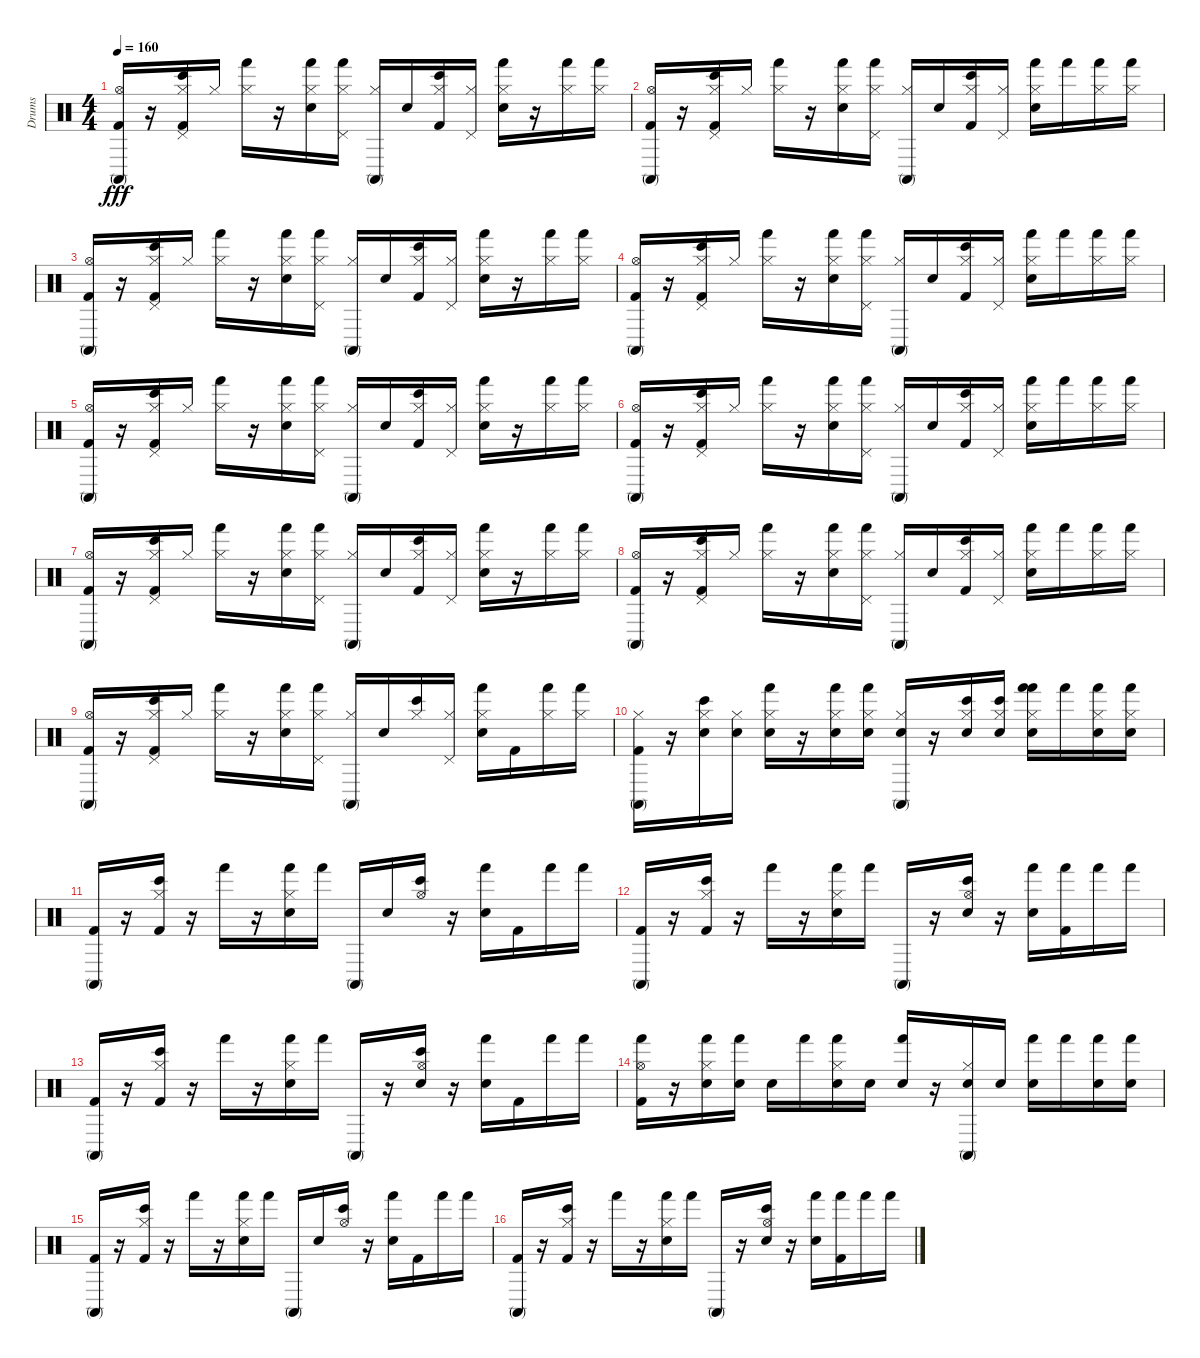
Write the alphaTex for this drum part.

\track ("Drums" "Drums") {instrument percussion}
\staff {score}
\articulation defaults
\ts (4 4)
\tempo 160
\clef neutral
\ks c
("Hi-Hat (open)" "Kick (hit) 2" "Conga high (mute)").16{dy fff} r.16 ("Bongo High (hit)" "Pedal Hi-Hat (hit)" "Kick (hit) 2" "Hi-Hat (closed)").16 "Hi-Hat (closed)".16 ("Hi-Hat (closed)" "Hand (hit)").16 r.16 ("Electric Snare (hit)" "Hi-Hat (closed)" "Hand (hit)").16 ("Pedal Hi-Hat (hit)" "Hi-Hat (closed)" "Hand (hit)").16 ("Conga high (mute)" "Hi-Hat (closed)").16 "Electric Snare (hit)".16 ("Bongo High (hit)" "Kick (hit) 2" "Hi-Hat (closed)").16 ("Hi-Hat (closed)" "Pedal Hi-Hat (hit)").16 ("Hi-Hat (closed)" "Hand (hit)" "Electric Snare (hit)").16 r.16 ("Hi-Hat (closed)" "Hand (hit)").16 ("Hi-Hat (closed)" "Hand (hit)").16 |
("Conga high (mute)" "Hi-Hat (open)" "Kick (hit) 2").16 r.16 ("Kick (hit) 2" "Bongo High (hit)" "Pedal Hi-Hat (hit)" "Hi-Hat (closed)").16 "Hi-Hat (closed)".16 ("Hi-Hat (closed)" "Hand (hit)").16 r.16 ("Electric Snare (hit)" "Hand (hit)" "Hi-Hat (closed)").16 ("Hand (hit)" "Pedal Hi-Hat (hit)" "Hi-Hat (closed)").16 ("Conga high (mute)" "Hi-Hat (closed)").16 "Electric Snare (hit)".16 ("Kick (hit) 2" "Hi-Hat (closed)" "Bongo High (hit)").16 ("Pedal Hi-Hat (hit)" "Hi-Hat (closed)").16 ("Hand (hit)" "Hi-Hat (closed)" "Electric Snare (hit)").16 "Hand (hit)".16 ("Hand (hit)" "Hi-Hat (closed)").16 ("Hand (hit)" "Hi-Hat (closed)").16 |
("Hi-Hat (open)" "Kick (hit) 2" "Conga high (mute)").16 r.16 ("Hi-Hat (closed)" "Pedal Hi-Hat (hit)" "Kick (hit) 2" "Bongo High (hit)").16 "Hi-Hat (closed)".16 ("Hand (hit)" "Hi-Hat (closed)").16 r.16 ("Hand (hit)" "Electric Snare (hit)" "Hi-Hat (closed)").16 ("Hand (hit)" "Pedal Hi-Hat (hit)" "Hi-Hat (closed)").16 ("Hi-Hat (closed)" "Conga high (mute)").16 "Electric Snare (hit)".16 ("Hi-Hat (closed)" "Kick (hit) 2" "Bongo High (hit)").16 ("Pedal Hi-Hat (hit)" "Hi-Hat (closed)").16 ("Electric Snare (hit)" "Hi-Hat (closed)" "Hand (hit)").16 r.16 ("Hand (hit)" "Hi-Hat (closed)").16 ("Hi-Hat (closed)" "Hand (hit)").16 |
("Kick (hit) 2" "Conga high (mute)" "Hi-Hat (open)").16 r.16 ("Kick (hit) 2" "Bongo High (hit)" "Pedal Hi-Hat (hit)" "Hi-Hat (closed)").16 "Hi-Hat (closed)".16 ("Hi-Hat (closed)" "Hand (hit)").16 r.16 ("Hi-Hat (closed)" "Electric Snare (hit)" "Hand (hit)").16 ("Pedal Hi-Hat (hit)" "Hi-Hat (closed)" "Hand (hit)").16 ("Conga high (mute)" "Hi-Hat (closed)").16 "Electric Snare (hit)".16 ("Bongo High (hit)" "Hi-Hat (closed)" "Kick (hit) 2").16 ("Pedal Hi-Hat (hit)" "Hi-Hat (closed)").16 ("Hand (hit)" "Hi-Hat (closed)" "Electric Snare (hit)").16 "Hand (hit)".16 ("Hi-Hat (closed)" "Hand (hit)").16 ("Hi-Hat (closed)" "Hand (hit)").16 |
("Conga high (mute)" "Hi-Hat (open)" "Kick (hit) 2").16 r.16 ("Bongo High (hit)" "Hi-Hat (closed)" "Kick (hit) 2" "Pedal Hi-Hat (hit)").16 "Hi-Hat (closed)".16 ("Hi-Hat (closed)" "Hand (hit)").16 r.16 ("Hand (hit)" "Electric Snare (hit)" "Hi-Hat (closed)").16 ("Hi-Hat (closed)" "Hand (hit)" "Pedal Hi-Hat (hit)").16 ("Hi-Hat (closed)" "Conga high (mute)").16 "Electric Snare (hit)".16 ("Kick (hit) 2" "Hi-Hat (closed)" "Bongo High (hit)").16 ("Hi-Hat (closed)" "Pedal Hi-Hat (hit)").16 ("Electric Snare (hit)" "Hi-Hat (closed)" "Hand (hit)").16 r.16 ("Hand (hit)" "Hi-Hat (closed)").16 ("Hand (hit)" "Hi-Hat (closed)").16 |
("Conga high (mute)" "Hi-Hat (open)" "Kick (hit) 2").16 r.16 ("Pedal Hi-Hat (hit)" "Bongo High (hit)" "Kick (hit) 2" "Hi-Hat (closed)").16 "Hi-Hat (closed)".16 ("Hi-Hat (closed)" "Hand (hit)").16 r.16 ("Hand (hit)" "Hi-Hat (closed)" "Electric Snare (hit)").16 ("Hi-Hat (closed)" "Hand (hit)" "Pedal Hi-Hat (hit)").16 ("Hi-Hat (closed)" "Conga high (mute)").16 "Electric Snare (hit)".16 ("Kick (hit) 2" "Hi-Hat (closed)" "Bongo High (hit)").16 ("Pedal Hi-Hat (hit)" "Hi-Hat (closed)").16 ("Hand (hit)" "Electric Snare (hit)" "Hi-Hat (closed)").16 "Hand (hit)".16 ("Hand (hit)" "Hi-Hat (closed)").16 ("Hand (hit)" "Hi-Hat (closed)").16 |
("Conga high (mute)" "Kick (hit) 2" "Hi-Hat (open)").16 r.16 ("Kick (hit) 2" "Bongo High (hit)" "Hi-Hat (closed)" "Pedal Hi-Hat (hit)").16 "Hi-Hat (closed)".16 ("Hi-Hat (closed)" "Hand (hit)").16 r.16 ("Hi-Hat (closed)" "Hand (hit)" "Electric Snare (hit)").16 ("Hand (hit)" "Hi-Hat (closed)" "Pedal Hi-Hat (hit)").16 ("Conga high (mute)" "Hi-Hat (closed)").16 "Electric Snare (hit)".16 ("Kick (hit) 2" "Bongo High (hit)" "Hi-Hat (closed)").16 ("Pedal Hi-Hat (hit)" "Hi-Hat (closed)").16 ("Hand (hit)" "Electric Snare (hit)" "Hi-Hat (closed)").16 r.16 ("Hand (hit)" "Hi-Hat (closed)").16 ("Hand (hit)" "Hi-Hat (closed)").16 |
("Hi-Hat (open)" "Kick (hit) 2" "Conga high (mute)").16 r.16 ("Hi-Hat (closed)" "Pedal Hi-Hat (hit)" "Kick (hit) 2" "Bongo High (hit)").16 "Hi-Hat (closed)".16 ("Hand (hit)" "Hi-Hat (closed)").16 r.16 ("Hi-Hat (closed)" "Hand (hit)" "Electric Snare (hit)").16 ("Pedal Hi-Hat (hit)" "Hand (hit)" "Hi-Hat (closed)").16 ("Hi-Hat (closed)" "Conga high (mute)").16 "Electric Snare (hit)".16 ("Kick (hit) 2" "Bongo High (hit)" "Hi-Hat (closed)").16 ("Pedal Hi-Hat (hit)" "Hi-Hat (closed)").16 ("Electric Snare (hit)" "Hand (hit)" "Hi-Hat (closed)").16 "Hand (hit)".16 ("Hi-Hat (closed)" "Hand (hit)").16 ("Hi-Hat (closed)" "Hand (hit)").16 |
("Hi-Hat (open)" "Kick (hit) 2" "Conga high (mute)").16 r.16 ("Kick (hit) 2" "Pedal Hi-Hat (hit)" "Hi-Hat (closed)" "Bongo High (hit)").16 "Hi-Hat (closed)".16 ("Hi-Hat (closed)" "Hand (hit)").16 r.16 ("Hand (hit)" "Hi-Hat (closed)" "Electric Snare (hit)").16 ("Hand (hit)" "Hi-Hat (closed)" "Pedal Hi-Hat (hit)").16 ("Hi-Hat (closed)" "Conga high (mute)").16 "Electric Snare (hit)".16 ("Hi-Hat (closed)" "Bongo High (hit)").16 ("Hi-Hat (closed)" "Pedal Hi-Hat (hit)").16 ("Hand (hit)" "Electric Snare (hit)" "Hi-Hat (closed)").16 "Kick (hit) 2".16 ("Hand (hit)" "Hi-Hat (closed)").16 ("Hi-Hat (closed)" "Hand (hit)").16 |
("Hi-Hat (closed)" "Kick (hit) 2" "Conga high (mute)").16 r.16 ("Hi-Hat (closed)" "Electric Snare (hit)" "Bongo High (hit)").16 ("Electric Snare (hit)" "Hi-Hat (closed)").16 ("Electric Snare (hit)" "Hi-Hat (closed)" "Hand (hit)").16 r.16 ("Electric Snare (hit)" "Hand (hit)" "Hi-Hat (closed)").16 ("Hand (hit)" "Hi-Hat (closed)" "Electric Snare (hit)").16 ("Hi-Hat (closed)" "Conga high (mute)" "Electric Snare (hit)").16 r.16 ("Bongo High (hit)" "Electric Snare (hit)" "Hi-Hat (closed)").16 ("Bongo High (hit)" "Electric Snare (hit)" "Hi-Hat (closed)").16 ("Hand (hit)" "Hi-Hat (closed)" "Hand (hit)" "Electric Snare (hit)").16 "Hand (hit)".16 ("Hand (hit)" "Electric Snare (hit)" "Hi-Hat (closed)").16 ("Hand (hit)" "Electric Snare (hit)" "Hi-Hat (closed)").16 |
("Kick (hit) 2" "Conga high (mute)").16 r.16 ("Kick (hit) 2" "Hi-Hat (closed)" "Bongo High (hit)").16 r.16 "Hand (hit)".16 r.16 ("Electric Snare (hit)" "Hi-Hat (closed)" "Hand (hit)").16 "Hand (hit)".16 "Conga high (mute)".16 "Electric Snare (hit)".16 ("Hi-Hat (open)" "Bongo High (hit)").16 r.16 ("Electric Snare (hit)" "Hand (hit)").16 "Kick (hit) 2".16 "Hand (hit)".16 "Hand (hit)".16 |
("Conga high (mute)" "Kick (hit) 2").16 r.16 ("Bongo High (hit)" "Kick (hit) 2" "Hi-Hat (closed)").16 r.16 "Hand (hit)".16 r.16 ("Hi-Hat (closed)" "Electric Snare (hit)" "Hand (hit)").16 "Hand (hit)".16 "Conga high (mute)".16 r.16 ("Electric Snare (hit)" "Bongo High (hit)" "Hi-Hat (open)").16 r.16 ("Electric Snare (hit)" "Hand (hit)").16 ("Kick (hit) 2" "Hand (hit)").16 "Hand (hit)".16 "Hand (hit)".16 |
("Conga high (mute)" "Kick (hit) 2").16 r.16 ("Hi-Hat (closed)" "Bongo High (hit)" "Kick (hit) 2").16 r.16 "Hand (hit)".16 r.16 ("Hand (hit)" "Electric Snare (hit)" "Hi-Hat (closed)").16 "Hand (hit)".16 "Conga high (mute)".16 r.16 ("Bongo High (hit)" "Electric Snare (hit)" "Hi-Hat (open)").16 r.16 ("Hand (hit)" "Electric Snare (hit)").16 "Kick (hit) 2".16 "Hand (hit)".16 "Hand (hit)".16 |
("Hand (hit)" "Kick (hit) 2" "Hi-Hat (open)").16 r.16 ("Electric Snare (hit)" "Hand (hit)" "Hi-Hat (closed)").16 ("Hand (hit)" "Electric Snare (hit)").16 "Electric Snare (hit)".16 "Hand (hit)".16 ("Electric Snare (hit)" "Hi-Hat (closed)" "Hand (hit)").16 "Electric Snare (hit)".16 ("Hand (hit)" "Electric Snare (hit)").16 r.16 ("Conga high (mute)" "Hi-Hat (closed)" "Electric Snare (hit)").16 "Electric Snare (hit)".16 ("Hand (hit)" "Electric Snare (hit)").16 "Hand (hit)".16 ("Hand (hit)" "Electric Snare (hit)").16 ("Electric Snare (hit)" "Hand (hit)").16 |
("Kick (hit) 2" "Conga high (mute)").16 r.16 ("Kick (hit) 2" "Bongo High (hit)" "Hi-Hat (closed)").16 r.16 "Hand (hit)".16 r.16 ("Electric Snare (hit)" "Hi-Hat (closed)" "Hand (hit)").16 "Hand (hit)".16 "Conga high (mute)".16 "Electric Snare (hit)".16 ("Bongo High (hit)" "Hi-Hat (open)").16 r.16 ("Hand (hit)" "Electric Snare (hit)").16 "Kick (hit) 2".16 "Hand (hit)".16 "Hand (hit)".16 |
("Kick (hit) 2" "Conga high (mute)").16 r.16 ("Hi-Hat (closed)" "Kick (hit) 2" "Bongo High (hit)").16 r.16 "Hand (hit)".16 r.16 ("Hi-Hat (closed)" "Electric Snare (hit)" "Hand (hit)").16 "Hand (hit)".16 "Conga high (mute)".16 r.16 ("Hi-Hat (open)" "Bongo High (hit)" "Electric Snare (hit)").16 r.16 ("Electric Snare (hit)" "Hand (hit)").16 ("Kick (hit) 2" "Hand (hit)").16 "Hand (hit)".16 "Hand (hit)".16
